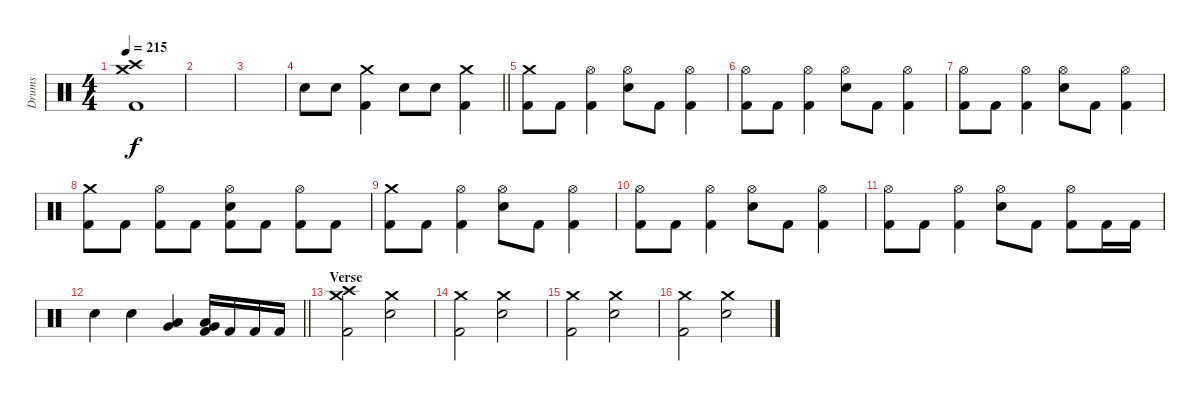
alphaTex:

\track ("Drums" "Drums") {instrument percussion}
\staff {score}
\articulation defaults
\ts (4 4)
\tempo 215
\clef neutral
\ks c
("Crash medium (hit)" "Crash high (hit)" "Kick (hit) 2").1{dy f} |
|
|
\barLineRight lightlight "Electric Snare (hit)".8 "Electric Snare (hit)".8
("Crash medium (hit)" "Kick (hit) 2").4 "Electric Snare (hit)".8 "Electric Snare (hit)".8 ("Crash medium (hit)" "Kick (hit) 2").4 |
\section ("" "")
("Crash medium (hit)" "Kick (hit) 2").8 "Kick (hit) 2".8 ("Hi-Hat (open)" "Kick (hit) 2").4 ("Hi-Hat (open)" "Electric Snare (hit)").8 "Kick (hit) 2".8 ("Hi-Hat (open)" "Kick (hit) 2").4 |
("Hi-Hat (open)" "Kick (hit) 2").8 "Kick (hit) 2".8 ("Hi-Hat (open)" "Kick (hit) 2").4 ("Hi-Hat (open)" "Electric Snare (hit)").8 "Kick (hit) 2".8 ("Hi-Hat (open)" "Kick (hit) 2").4 |
("Hi-Hat (open)" "Kick (hit) 2").8 "Kick (hit) 2".8 ("Hi-Hat (open)" "Kick (hit) 2").4 ("Hi-Hat (open)" "Electric Snare (hit)").8 "Kick (hit) 2".8 ("Hi-Hat (open)" "Kick (hit) 2").4 |
("Crash medium (hit)" "Kick (hit) 2").8 "Kick (hit) 2".8 ("Hi-Hat (open)" "Kick (hit) 2").8 "Kick (hit) 2".8 ("Hi-Hat (open)" "Electric Snare (hit)" "Kick (hit) 2").8 "Kick (hit) 2".8 ("Hi-Hat (open)" "Kick (hit) 2").8 "Kick (hit) 2".8 |
("Crash medium (hit)" "Kick (hit) 2").8 "Kick (hit) 2".8 ("Hi-Hat (open)" "Kick (hit) 2").4 ("Hi-Hat (open)" "Electric Snare (hit)").8 "Kick (hit) 2".8 ("Hi-Hat (open)" "Kick (hit) 2").4 |
("Hi-Hat (open)" "Kick (hit) 2").8 "Kick (hit) 2".8 ("Hi-Hat (open)" "Kick (hit) 2").4 ("Hi-Hat (open)" "Electric Snare (hit)").8 "Kick (hit) 2".8 ("Hi-Hat (open)" "Kick (hit) 2").4 |
("Hi-Hat (open)" "Kick (hit) 2").8 "Kick (hit) 2".8 ("Hi-Hat (open)" "Kick (hit) 2").4 ("Hi-Hat (open)" "Electric Snare (hit)").8 "Kick (hit) 2".8 ("Hi-Hat (open)" "Kick (hit) 2").8 "Kick (hit) 2".16 "Kick (hit) 2".16 |
\barLineRight lightlight "Electric Snare (hit)".4 "Electric Snare (hit)".4
("Low Tom (hit)" "Very Low Tom (hit)").4 ("Low Tom (hit)" "Very Low Tom (hit)" "Kick (hit) 2").16 "Kick (hit) 2".16 "Kick (hit) 2".16 "Kick (hit) 2".16 |
\section ("" "Verse")
("Crash medium (hit)" "Crash high (hit)" "Kick (hit) 2").2 ("Crash medium (hit)" "Electric Snare (hit)").2 |
("Crash medium (hit)" "Kick (hit) 2").2 ("Crash medium (hit)" "Electric Snare (hit)").2 |
("Crash medium (hit)" "Kick (hit) 2").2 ("Crash medium (hit)" "Electric Snare (hit)").2 |
("Crash medium (hit)" "Kick (hit) 2").2 ("Crash medium (hit)" "Electric Snare (hit)").2
